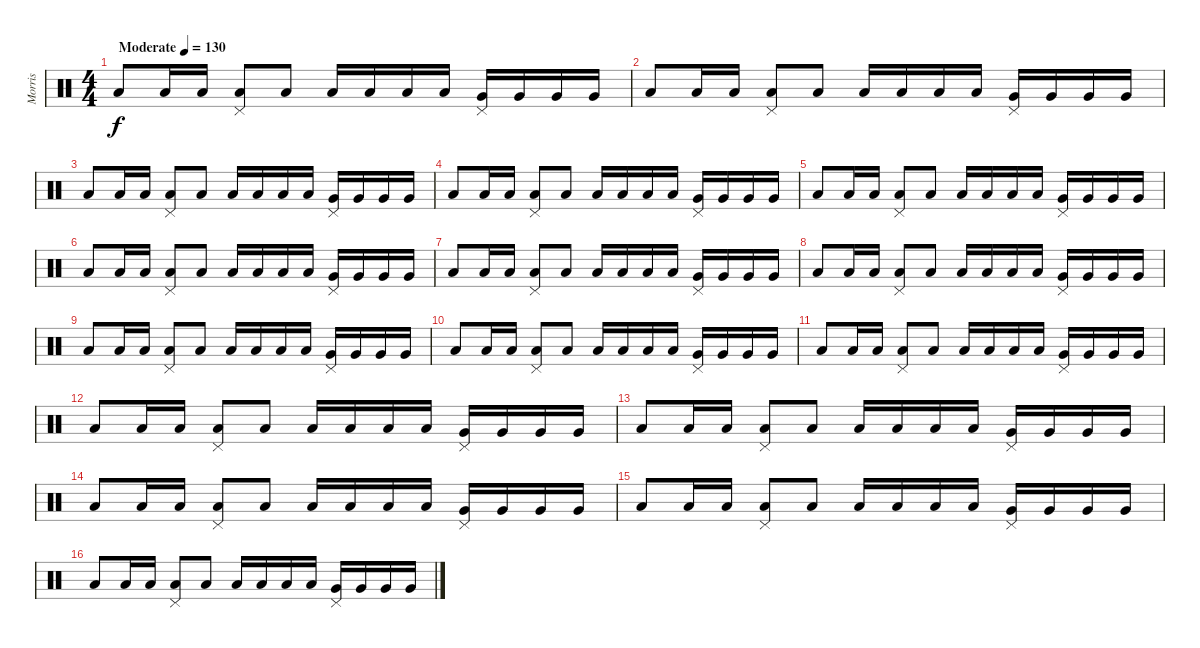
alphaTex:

\track ("Morris" "Morris") {instrument percussion}
\staff {score}
\articulation defaults
\ts (4 4)
\tempo (130 "Moderate")
\clef neutral
\ks c "Low Floor Tom (hit)".8{dy f} "Low Floor Tom (hit)".16 "Low Floor Tom (hit)".16
("Low Tom (hit)" "Pedal Hi-Hat (hit)").8 "Low Floor Tom (hit)".8 "Low Tom (hit)".16 "Low Tom (hit)".16 "Low Tom (hit)".16 "Low Tom (hit)".16 ("Very Low Tom (hit)" "Pedal Hi-Hat (hit)").16 "Very Low Tom (hit)".16 "Very Low Tom (hit)".16 "Very Low Tom (hit)".16 |
"Low Floor Tom (hit)".8 "Low Floor Tom (hit)".16 "Low Floor Tom (hit)".16 ("Low Tom (hit)" "Pedal Hi-Hat (hit)").8 "Low Floor Tom (hit)".8 "Low Tom (hit)".16 "Low Tom (hit)".16 "Low Tom (hit)".16 "Low Tom (hit)".16 ("Very Low Tom (hit)" "Pedal Hi-Hat (hit)").16 "Very Low Tom (hit)".16 "Very Low Tom (hit)".16 "Very Low Tom (hit)".16 |
"Low Floor Tom (hit)".8 "Low Floor Tom (hit)".16 "Low Floor Tom (hit)".16 ("Low Tom (hit)" "Pedal Hi-Hat (hit)").8 "Low Floor Tom (hit)".8 "Low Tom (hit)".16 "Low Tom (hit)".16 "Low Tom (hit)".16 "Low Tom (hit)".16 ("Very Low Tom (hit)" "Pedal Hi-Hat (hit)").16 "Very Low Tom (hit)".16 "Very Low Tom (hit)".16 "Very Low Tom (hit)".16 |
"Low Floor Tom (hit)".8 "Low Floor Tom (hit)".16 "Low Floor Tom (hit)".16 ("Low Tom (hit)" "Pedal Hi-Hat (hit)").8 "Low Floor Tom (hit)".8 "Low Tom (hit)".16 "Low Tom (hit)".16 "Low Tom (hit)".16 "Low Tom (hit)".16 ("Very Low Tom (hit)" "Pedal Hi-Hat (hit)").16 "Very Low Tom (hit)".16 "Very Low Tom (hit)".16 "Very Low Tom (hit)".16 |
"Low Floor Tom (hit)".8 "Low Floor Tom (hit)".16 "Low Floor Tom (hit)".16 ("Low Tom (hit)" "Pedal Hi-Hat (hit)").8 "Low Floor Tom (hit)".8 "Low Tom (hit)".16 "Low Tom (hit)".16 "Low Tom (hit)".16 "Low Tom (hit)".16 ("Very Low Tom (hit)" "Pedal Hi-Hat (hit)").16 "Very Low Tom (hit)".16 "Very Low Tom (hit)".16 "Very Low Tom (hit)".16 |
"Low Floor Tom (hit)".8 "Low Floor Tom (hit)".16 "Low Floor Tom (hit)".16 ("Low Tom (hit)" "Pedal Hi-Hat (hit)").8 "Low Floor Tom (hit)".8 "Low Tom (hit)".16 "Low Tom (hit)".16 "Low Tom (hit)".16 "Low Tom (hit)".16 ("Very Low Tom (hit)" "Pedal Hi-Hat (hit)").16 "Very Low Tom (hit)".16 "Very Low Tom (hit)".16 "Very Low Tom (hit)".16 |
"Low Floor Tom (hit)".8 "Low Floor Tom (hit)".16 "Low Floor Tom (hit)".16 ("Low Tom (hit)" "Pedal Hi-Hat (hit)").8 "Low Floor Tom (hit)".8 "Low Tom (hit)".16 "Low Tom (hit)".16 "Low Tom (hit)".16 "Low Tom (hit)".16 ("Very Low Tom (hit)" "Pedal Hi-Hat (hit)").16 "Very Low Tom (hit)".16 "Very Low Tom (hit)".16 "Very Low Tom (hit)".16 |
"Low Floor Tom (hit)".8 "Low Floor Tom (hit)".16 "Low Floor Tom (hit)".16 ("Low Tom (hit)" "Pedal Hi-Hat (hit)").8 "Low Floor Tom (hit)".8 "Low Tom (hit)".16 "Low Tom (hit)".16 "Low Tom (hit)".16 "Low Tom (hit)".16 ("Very Low Tom (hit)" "Pedal Hi-Hat (hit)").16 "Very Low Tom (hit)".16 "Very Low Tom (hit)".16 "Very Low Tom (hit)".16 |
"Low Floor Tom (hit)".8 "Low Floor Tom (hit)".16 "Low Floor Tom (hit)".16 ("Low Tom (hit)" "Pedal Hi-Hat (hit)").8 "Low Floor Tom (hit)".8 "Low Tom (hit)".16 "Low Tom (hit)".16 "Low Tom (hit)".16 "Low Tom (hit)".16 ("Very Low Tom (hit)" "Pedal Hi-Hat (hit)").16 "Very Low Tom (hit)".16 "Very Low Tom (hit)".16 "Very Low Tom (hit)".16 |
"Low Floor Tom (hit)".8 "Low Floor Tom (hit)".16 "Low Floor Tom (hit)".16 ("Low Tom (hit)" "Pedal Hi-Hat (hit)").8 "Low Floor Tom (hit)".8 "Low Tom (hit)".16 "Low Tom (hit)".16 "Low Tom (hit)".16 "Low Tom (hit)".16 ("Very Low Tom (hit)" "Pedal Hi-Hat (hit)").16 "Very Low Tom (hit)".16 "Very Low Tom (hit)".16 "Very Low Tom (hit)".16 |
"Low Floor Tom (hit)".8 "Low Floor Tom (hit)".16 "Low Floor Tom (hit)".16 ("Low Tom (hit)" "Pedal Hi-Hat (hit)").8 "Low Floor Tom (hit)".8 "Low Tom (hit)".16 "Low Tom (hit)".16 "Low Tom (hit)".16 "Low Tom (hit)".16 ("Very Low Tom (hit)" "Pedal Hi-Hat (hit)").16 "Very Low Tom (hit)".16 "Very Low Tom (hit)".16 "Very Low Tom (hit)".16 |
"Low Floor Tom (hit)".8 "Low Floor Tom (hit)".16 "Low Floor Tom (hit)".16 ("Low Tom (hit)" "Pedal Hi-Hat (hit)").8 "Low Floor Tom (hit)".8 "Low Tom (hit)".16 "Low Tom (hit)".16 "Low Tom (hit)".16 "Low Tom (hit)".16 ("Very Low Tom (hit)" "Pedal Hi-Hat (hit)").16 "Very Low Tom (hit)".16 "Very Low Tom (hit)".16 "Very Low Tom (hit)".16 |
"Low Floor Tom (hit)".8 "Low Floor Tom (hit)".16 "Low Floor Tom (hit)".16 ("Low Tom (hit)" "Pedal Hi-Hat (hit)").8 "Low Floor Tom (hit)".8 "Low Tom (hit)".16 "Low Tom (hit)".16 "Low Tom (hit)".16 "Low Tom (hit)".16 ("Very Low Tom (hit)" "Pedal Hi-Hat (hit)").16 "Very Low Tom (hit)".16 "Very Low Tom (hit)".16 "Very Low Tom (hit)".16 |
"Low Floor Tom (hit)".8 "Low Floor Tom (hit)".16 "Low Floor Tom (hit)".16 ("Low Tom (hit)" "Pedal Hi-Hat (hit)").8 "Low Floor Tom (hit)".8 "Low Tom (hit)".16 "Low Tom (hit)".16 "Low Tom (hit)".16 "Low Tom (hit)".16 ("Very Low Tom (hit)" "Pedal Hi-Hat (hit)").16 "Very Low Tom (hit)".16 "Very Low Tom (hit)".16 "Very Low Tom (hit)".16 |
"Low Floor Tom (hit)".8 "Low Floor Tom (hit)".16 "Low Floor Tom (hit)".16 ("Low Tom (hit)" "Pedal Hi-Hat (hit)").8 "Low Floor Tom (hit)".8 "Low Tom (hit)".16 "Low Tom (hit)".16 "Low Tom (hit)".16 "Low Tom (hit)".16 ("Very Low Tom (hit)" "Pedal Hi-Hat (hit)").16 "Very Low Tom (hit)".16 "Very Low Tom (hit)".16 "Very Low Tom (hit)".16 |
"Low Floor Tom (hit)".8 "Low Floor Tom (hit)".16 "Low Floor Tom (hit)".16 ("Low Tom (hit)" "Pedal Hi-Hat (hit)").8 "Low Floor Tom (hit)".8 "Low Tom (hit)".16 "Low Tom (hit)".16 "Low Tom (hit)".16 "Low Tom (hit)".16 ("Very Low Tom (hit)" "Pedal Hi-Hat (hit)").16 "Very Low Tom (hit)".16 "Very Low Tom (hit)".16 "Very Low Tom (hit)".16
